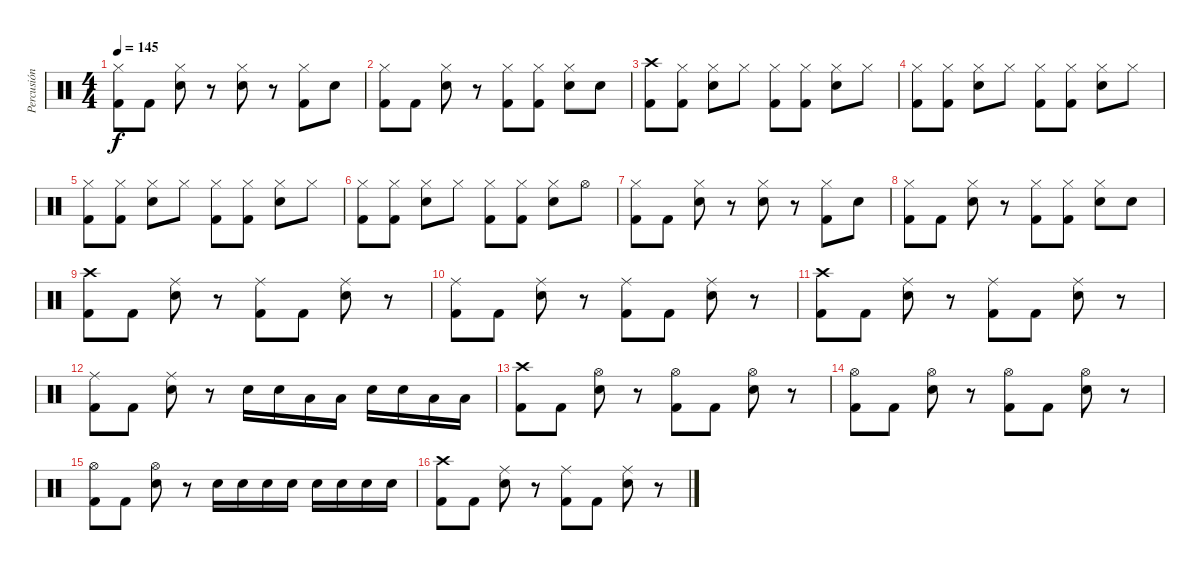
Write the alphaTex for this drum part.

\track ("Percusión" "Percusión") {instrument percussion}
\staff {score}
\articulation defaults
\ts (4 4)
\tempo 145
\clef neutral
\ks c
("Hi-Hat (closed)" "Kick (hit) 2").8{dy f} "Kick (hit) 2".8 ("Hi-Hat (closed)" "Electric Snare (hit)").8 r.8 ("Hi-Hat (closed)" "Electric Snare (hit)").8 r.8 ("Hi-Hat (closed)" "Kick (hit) 2").8 "Electric Snare (hit)".8 |
("Hi-Hat (closed)" "Kick (hit) 2").8 "Kick (hit) 2".8 ("Hi-Hat (closed)" "Electric Snare (hit)").8 r.8 ("Hi-Hat (closed)" "Kick (hit) 2").8 ("Hi-Hat (closed)" "Kick (hit) 2").8 ("Hi-Hat (closed)" "Electric Snare (hit)").8 "Electric Snare (hit)".8 |
("Crash high (hit)" "Kick (hit) 2").8 ("Hi-Hat (closed)" "Kick (hit) 2").8 ("Hi-Hat (closed)" "Electric Snare (hit)").8 "Hi-Hat (closed)".8 ("Hi-Hat (closed)" "Kick (hit) 2").8 ("Hi-Hat (closed)" "Kick (hit) 2").8 ("Hi-Hat (closed)" "Electric Snare (hit)").8 "Hi-Hat (closed)".8 |
("Hi-Hat (closed)" "Kick (hit) 2").8 ("Hi-Hat (closed)" "Kick (hit) 2").8 ("Hi-Hat (closed)" "Electric Snare (hit)").8 "Hi-Hat (closed)".8 ("Hi-Hat (closed)" "Kick (hit) 2").8 ("Hi-Hat (closed)" "Kick (hit) 2").8 ("Hi-Hat (closed)" "Electric Snare (hit)").8 "Hi-Hat (closed)".8 |
("Hi-Hat (closed)" "Kick (hit) 2").8 ("Hi-Hat (closed)" "Kick (hit) 2").8 ("Hi-Hat (closed)" "Electric Snare (hit)").8 "Hi-Hat (closed)".8 ("Hi-Hat (closed)" "Kick (hit) 2").8 ("Hi-Hat (closed)" "Kick (hit) 2").8 ("Hi-Hat (closed)" "Electric Snare (hit)").8 "Hi-Hat (closed)".8 |
("Hi-Hat (closed)" "Kick (hit) 2").8 ("Hi-Hat (closed)" "Kick (hit) 2").8 ("Hi-Hat (closed)" "Electric Snare (hit)").8 "Hi-Hat (closed)".8 ("Hi-Hat (closed)" "Kick (hit) 2").8 ("Hi-Hat (closed)" "Kick (hit) 2").8 ("Hi-Hat (closed)" "Electric Snare (hit)").8 "Hi-Hat (open)".8 |
("Hi-Hat (closed)" "Kick (hit) 2").8 "Kick (hit) 2".8 ("Hi-Hat (closed)" "Electric Snare (hit)").8 r.8 ("Hi-Hat (closed)" "Electric Snare (hit)").8 r.8 ("Hi-Hat (closed)" "Kick (hit) 2").8 "Electric Snare (hit)".8 |
("Hi-Hat (closed)" "Kick (hit) 2").8 "Kick (hit) 2".8 ("Hi-Hat (closed)" "Electric Snare (hit)").8 r.8 ("Hi-Hat (closed)" "Kick (hit) 2").8 ("Hi-Hat (closed)" "Kick (hit) 2").8 ("Hi-Hat (closed)" "Electric Snare (hit)").8 "Electric Snare (hit)".8 |
("Crash high (hit)" "Kick (hit) 2").8 "Kick (hit) 2".8 ("Ride (middle)" "Electric Snare (hit)").8 r.8 ("Ride (middle)" "Kick (hit) 2").8 "Kick (hit) 2".8 ("Ride (middle)" "Electric Snare (hit)").8 r.8 |
("Ride (middle)" "Kick (hit) 2").8 "Kick (hit) 2".8 ("Ride (middle)" "Electric Snare (hit)").8 r.8 ("Ride (middle)" "Kick (hit) 2").8 "Kick (hit) 2".8 ("Ride (middle)" "Electric Snare (hit)").8 r.8 |
("Crash high (hit)" "Kick (hit) 2").8 "Kick (hit) 2".8 ("Ride (middle)" "Electric Snare (hit)").8 r.8 ("Ride (middle)" "Kick (hit) 2").8 "Kick (hit) 2".8 ("Ride (middle)" "Electric Snare (hit)").8 r.8 |
("Ride (middle)" "Kick (hit) 2").8 "Kick (hit) 2".8 ("Ride (middle)" "Electric Snare (hit)").8 r.8 "Electric Snare (hit)".16 "Electric Snare (hit)".16 "Low Tom (hit)".16 "Low Tom (hit)".16 "Electric Snare (hit)".16 "Electric Snare (hit)".16 "Low Tom (hit)".16 "Low Tom (hit)".16 |
("Crash high (hit)" "Kick (hit) 2").8 "Kick (hit) 2".8 ("Hi-Hat (open)" "Electric Snare (hit)").8 r.8 ("Hi-Hat (open)" "Kick (hit) 2").8 "Kick (hit) 2".8 ("Hi-Hat (open)" "Electric Snare (hit)").8 r.8 |
("Hi-Hat (open)" "Kick (hit) 2").8 "Kick (hit) 2".8 ("Hi-Hat (open)" "Electric Snare (hit)").8 r.8 ("Hi-Hat (open)" "Kick (hit) 2").8 "Kick (hit) 2".8 ("Hi-Hat (open)" "Electric Snare (hit)").8 r.8 |
("Hi-Hat (open)" "Kick (hit) 2").8 "Kick (hit) 2".8 ("Hi-Hat (open)" "Electric Snare (hit)").8 r.8 "Electric Snare (hit)".16 "Electric Snare (hit)".16 "Electric Snare (hit)".16 "Electric Snare (hit)".16 "Electric Snare (hit)".16 "Electric Snare (hit)".16 "Electric Snare (hit)".16 "Electric Snare (hit)".16 |
("Crash high (hit)" "Kick (hit) 2").8 "Kick (hit) 2".8 ("Ride (middle)" "Electric Snare (hit)").8 r.8 ("Ride (middle)" "Kick (hit) 2").8 "Kick (hit) 2".8 ("Ride (middle)" "Electric Snare (hit)").8 r.8
